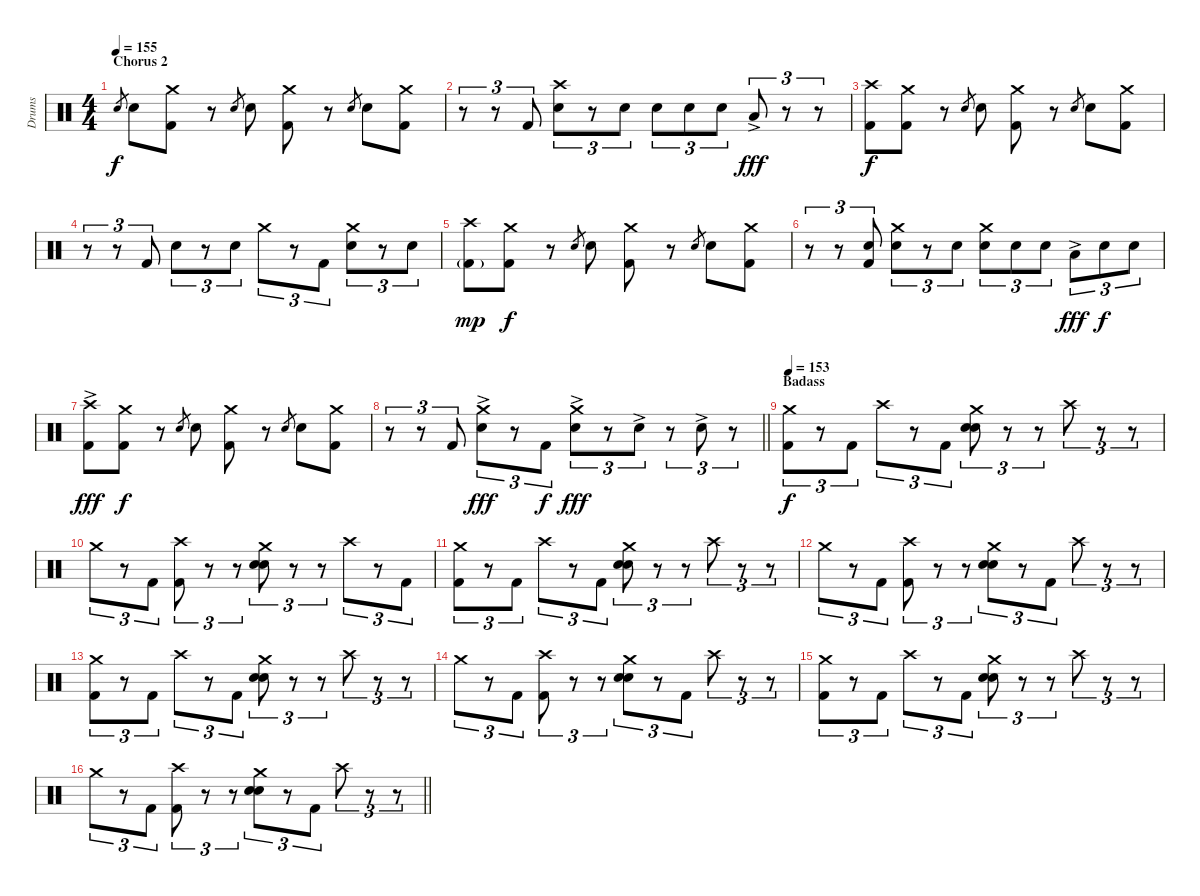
\track ("Drums" "Drums") {instrument percussion}
\staff {score}
\articulation defaults
\ts (4 4)
\section ("" "Chorus 2")
\tempo 155
\clef neutral
\ks c "Snare (hit) 2".8{gr dy f} "Electric Snare (hit)".8
("Crash medium (hit)" "Kick (hit) 2").8 r.8 "Snare (hit) 2".8{gr} "Electric Snare (hit)".8 ("Crash medium (hit)" "Kick (hit) 2").8 r.8 "Snare (hit) 2".8{gr} "Electric Snare (hit)".8 ("Crash medium (hit)" "Kick (hit) 2").8 |
r.8{tu (3 2)} r.8{tu (3 2)} "Kick (hit) 2".8{tu (3 2)} ("Crash high (hit)" "Electric Snare (hit)").8{tu (3 2)} r.8{tu (3 2)} "Electric Snare (hit)".8{tu (3 2)} "Electric Snare (hit)".8{tu (3 2)} "Electric Snare (hit)".8{tu (3 2)} "Electric Snare (hit)".8{tu (3 2)} "Low Floor Tom (hit)"{ac}.8{tu (3 2) dy fff} r.8{tu (3 2)} r.8{tu (3 2)} |
("Crash high (hit)" "Kick (hit) 2").8{dy f} ("Crash medium (hit)" "Kick (hit) 2").8 r.8 "Snare (hit) 2".8{gr} "Electric Snare (hit)".8 ("Crash medium (hit)" "Kick (hit) 2").8 r.8 "Snare (hit) 2".8{gr} "Electric Snare (hit)".8 ("Crash medium (hit)" "Kick (hit) 2").8 |
r.8{tu (3 2)} r.8{tu (3 2)} "Kick (hit) 2".8{tu (3 2)} "Electric Snare (hit)".8{tu (3 2)} r.8{tu (3 2)} "Electric Snare (hit)".8{tu (3 2)} "Crash medium (hit)".8{tu (3 2)} r.8{tu (3 2)} "Kick (hit) 2".8{tu (3 2)} ("Crash medium (hit)" "Electric Snare (hit)").8{tu (3 2)} r.8{tu (3 2)} "Electric Snare (hit)".8{tu (3 2)} |
("Crash high (hit)" "Kick (hit) 2"{g}).8{dy mp} ("Crash medium (hit)" "Kick (hit) 2").8{dy f} r.8 "Snare (hit) 2".8{gr} "Electric Snare (hit)".8 ("Crash medium (hit)" "Kick (hit) 2").8 r.8 "Snare (hit) 2".8{gr} "Electric Snare (hit)".8 ("Crash medium (hit)" "Kick (hit) 2").8 |
r.8{tu (3 2)} r.8{tu (3 2)} ("Electric Snare (hit)" "Kick (hit) 2").8{tu (3 2)} ("Crash medium (hit)" "Electric Snare (hit)").8{tu (3 2)} r.8{tu (3 2)} "Electric Snare (hit)".8{tu (3 2)} ("Crash medium (hit)" "Electric Snare (hit)").8{tu (3 2)} "Electric Snare (hit)".8{tu (3 2)} "Electric Snare (hit)".8{tu (3 2)} "Low Floor Tom (hit)"{ac}.8{tu (3 2) dy fff} "Electric Snare (hit)".8{tu (3 2) dy f} "Electric Snare (hit)".8{tu (3 2)} |
("Crash high (hit)" "Kick (hit) 2"{ac}).8{dy fff} ("Crash medium (hit)" "Kick (hit) 2").8{dy f} r.8 "Snare (hit) 2".8{gr} "Electric Snare (hit)".8 ("Crash medium (hit)" "Kick (hit) 2").8 r.8 "Snare (hit) 2".8{gr} "Electric Snare (hit)".8 ("Crash medium (hit)" "Kick (hit) 2").8 |
\barLineRight lightlight
r.8{tu (3 2)} r.8{tu (3 2)} "Kick (hit) 2".8{tu (3 2)} ("Crash medium (hit)" "Electric Snare (hit)"{ac}).8{tu (3 2) dy fff} r.8{tu (3 2)} "Kick (hit) 2".8{tu (3 2) dy f} ("Crash medium (hit)" "Electric Snare (hit)"{ac}).8{tu (3 2) dy fff} r.8{tu (3 2)} "Electric Snare (hit)"{ac}.8{tu (3 2)} r.8{tu (3 2)} "Electric Snare (hit)"{ac}.8{tu (3 2)} r.8{tu (3 2)} |
\section ("" "Badass")
\tempo 153
("Crash medium (hit)" "Kick (hit) 2").8{tu (3 2) dy f} r.8{tu (3 2)} "Kick (hit) 2".8{tu (3 2)} "Crash high (hit)".8{tu (3 2)} r.8{tu (3 2)} "Kick (hit) 2".8{tu (3 2)} ("Crash medium (hit)" "Snare (hit) 2" "Electric Snare (hit)").8{tu (3 2)} r.8{tu (3 2)} r.8{tu (3 2)} "Crash high (hit)".8{tu (3 2)} r.8{tu (3 2)} r.8{tu (3 2)} |
"Crash medium (hit)".8{tu (3 2)} r.8{tu (3 2)} "Kick (hit) 2".8{tu (3 2)} ("Crash high (hit)" "Kick (hit) 2").8{tu (3 2)} r.8{tu (3 2)} r.8{tu (3 2)} ("Crash medium (hit)" "Snare (hit) 2" "Electric Snare (hit)").8{tu (3 2)} r.8{tu (3 2)} r.8{tu (3 2)} "Crash high (hit)".8{tu (3 2)} r.8{tu (3 2)} "Kick (hit) 2".8{tu (3 2)} |
("Crash medium (hit)" "Kick (hit) 2").8{tu (3 2)} r.8{tu (3 2)} "Kick (hit) 2".8{tu (3 2)} "Crash high (hit)".8{tu (3 2)} r.8{tu (3 2)} "Kick (hit) 2".8{tu (3 2)} ("Crash medium (hit)" "Snare (hit) 2" "Electric Snare (hit)").8{tu (3 2)} r.8{tu (3 2)} r.8{tu (3 2)} "Crash high (hit)".8{tu (3 2)} r.8{tu (3 2)} r.8{tu (3 2)} |
"Crash medium (hit)".8{tu (3 2)} r.8{tu (3 2)} "Kick (hit) 2".8{tu (3 2)} ("Crash high (hit)" "Kick (hit) 2").8{tu (3 2)} r.8{tu (3 2)} r.8{tu (3 2)} ("Crash medium (hit)" "Snare (hit) 2" "Electric Snare (hit)").8{tu (3 2)} r.8{tu (3 2)} "Kick (hit) 2".8{tu (3 2)} "Crash high (hit)".8{tu (3 2)} r.8{tu (3 2)} r.8{tu (3 2)} |
("Crash medium (hit)" "Kick (hit) 2").8{tu (3 2)} r.8{tu (3 2)} "Kick (hit) 2".8{tu (3 2)} "Crash high (hit)".8{tu (3 2)} r.8{tu (3 2)} "Kick (hit) 2".8{tu (3 2)} ("Crash medium (hit)" "Snare (hit) 2" "Electric Snare (hit)").8{tu (3 2)} r.8{tu (3 2)} r.8{tu (3 2)} "Crash high (hit)".8{tu (3 2)} r.8{tu (3 2)} r.8{tu (3 2)} |
"Crash medium (hit)".8{tu (3 2)} r.8{tu (3 2)} "Kick (hit) 2".8{tu (3 2)} ("Crash high (hit)" "Kick (hit) 2").8{tu (3 2)} r.8{tu (3 2)} r.8{tu (3 2)} ("Crash medium (hit)" "Snare (hit) 2" "Electric Snare (hit)").8{tu (3 2)} r.8{tu (3 2)} "Kick (hit) 2".8{tu (3 2)} "Crash high (hit)".8{tu (3 2)} r.8{tu (3 2)} r.8{tu (3 2)} |
("Crash medium (hit)" "Kick (hit) 2").8{tu (3 2)} r.8{tu (3 2)} "Kick (hit) 2".8{tu (3 2)} "Crash high (hit)".8{tu (3 2)} r.8{tu (3 2)} "Kick (hit) 2".8{tu (3 2)} ("Crash medium (hit)" "Snare (hit) 2" "Electric Snare (hit)").8{tu (3 2)} r.8{tu (3 2)} r.8{tu (3 2)} "Crash high (hit)".8{tu (3 2)} r.8{tu (3 2)} r.8{tu (3 2)} |
\barLineRight lightlight "Crash medium (hit)".8{tu (3 2)}
r.8{tu (3 2)} "Kick (hit) 2".8{tu (3 2)} ("Crash high (hit)" "Kick (hit) 2").8{tu (3 2)} r.8{tu (3 2)} r.8{tu (3 2)} ("Crash medium (hit)" "Snare (hit) 2" "Electric Snare (hit)").8{tu (3 2)} r.8{tu (3 2)} "Kick (hit) 2".8{tu (3 2)} "Crash high (hit)".8{tu (3 2)} r.8{tu (3 2)} r.8{tu (3 2)}
